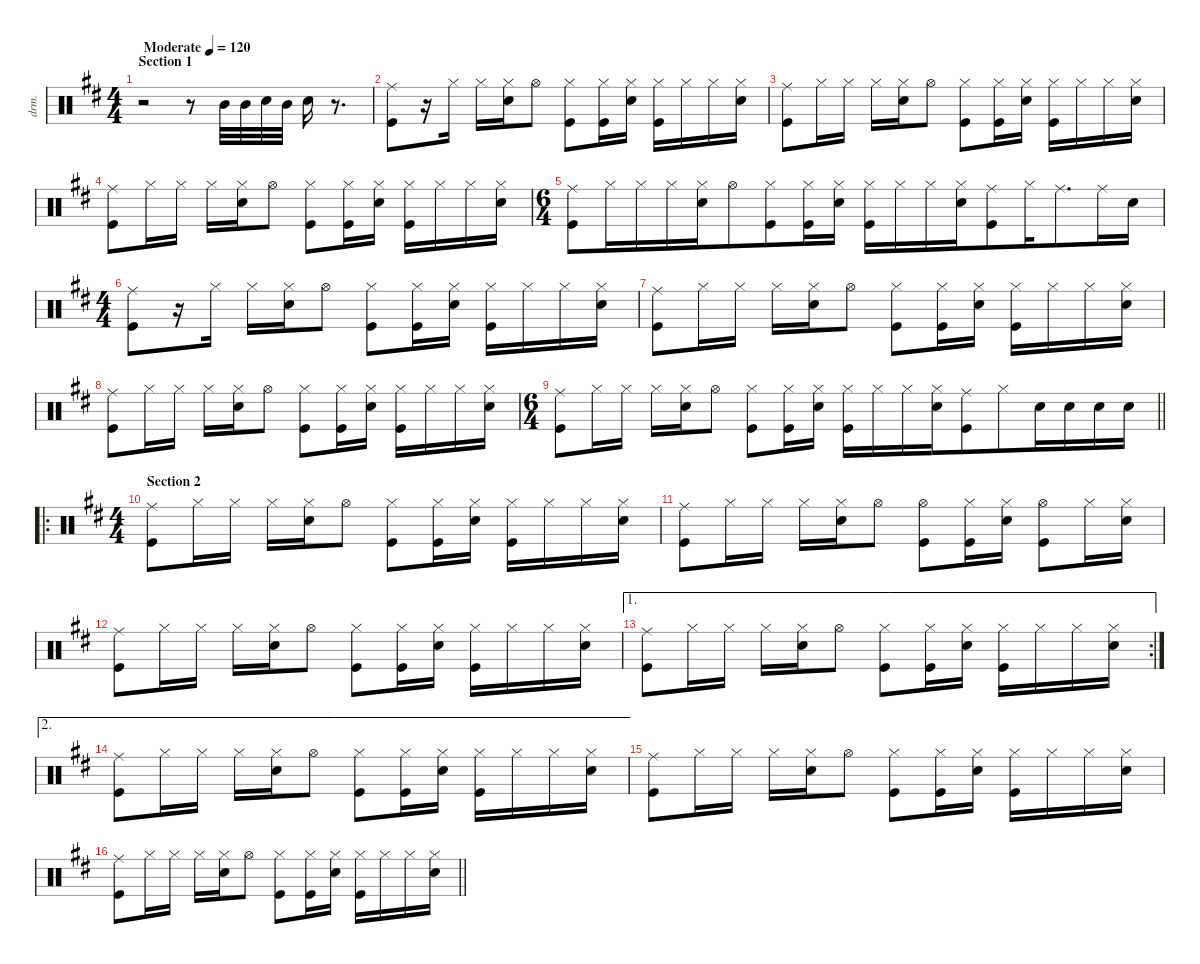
\defaultSystemsLayout 4
\hideDynamics
\bracketExtendMode nobrackets
\otherSystemsTrackNameOrientation horizontal
\track ("Drums" "drm.") {instrument percussion}
\staff {score}
\articulation defaults
\ts (4 4)
\beaming (8 2 2 2 2)
\section ("" "Section 1")
\tempo (120 "Moderate")
\clef neutral
\ks d
r.2{dy f} r.8 "Mid Tom (hit)"{acc forcenatural}.32 "Mid Tom (hit)"{acc forcenatural}.32 "Snare (hit) 2"{acc forcenatural}.32 "Mid Tom (hit)"{acc forcenatural}.32 "Snare (hit) 2"{acc forcenatural}.16 r.8{d} |
("Ride (middle)"{acc forcenatural} "Kick (hit)"{acc forcenatural}).8 r.16 "Hi-Hat (closed)"{acc forcenatural}.16 "Hi-Hat (closed)"{acc forcenatural}.16 ("Hi-Hat (closed)"{acc forcenatural} "Snare (hit) 2"{acc forcenatural}).16 "Hi-Hat (open)"{acc forcenatural}.8 ("Hi-Hat (closed)"{acc forcenatural} "Kick (hit)"{acc forcenatural}).8 ("Hi-Hat (closed)"{acc forcenatural} "Kick (hit)"{acc forcenatural}).16 ("Hi-Hat (closed)"{acc forcenatural} "Snare (hit) 2"{acc forcenatural}).16 ("Hi-Hat (closed)"{acc forcenatural} "Kick (hit)"{acc forcenatural}).16 "Hi-Hat (closed)"{acc forcenatural}.16 "Hi-Hat (closed)"{acc forcenatural}.16 ("Hi-Hat (closed)"{acc forcenatural} "Snare (hit) 2"{acc forcenatural}).16 |
("Ride (middle)"{acc forcenatural} "Kick (hit)"{acc forcenatural}).8 "Hi-Hat (closed)"{acc forcenatural}.16 "Hi-Hat (closed)"{acc forcenatural}.16 "Hi-Hat (closed)"{acc forcenatural}.16 ("Hi-Hat (closed)"{acc forcenatural} "Snare (hit) 2"{acc forcenatural}).16 "Hi-Hat (open)"{acc forcenatural}.8 ("Hi-Hat (closed)"{acc forcenatural} "Kick (hit)"{acc forcenatural}).8 ("Hi-Hat (closed)"{acc forcenatural} "Kick (hit)"{acc forcenatural}).16 ("Hi-Hat (closed)"{acc forcenatural} "Snare (hit) 2"{acc forcenatural}).16 ("Hi-Hat (closed)"{acc forcenatural} "Kick (hit)"{acc forcenatural}).16 "Hi-Hat (closed)"{acc forcenatural}.16 "Hi-Hat (closed)"{acc forcenatural}.16 ("Hi-Hat (closed)"{acc forcenatural} "Snare (hit) 2"{acc forcenatural}).16 |
("Ride (middle)"{acc forcenatural} "Kick (hit)"{acc forcenatural}).8 "Hi-Hat (closed)"{acc forcenatural}.16 "Hi-Hat (closed)"{acc forcenatural}.16 "Hi-Hat (closed)"{acc forcenatural}.16 ("Hi-Hat (closed)"{acc forcenatural} "Snare (hit) 2"{acc forcenatural}).16 "Hi-Hat (open)"{acc forcenatural}.8 ("Hi-Hat (closed)"{acc forcenatural} "Kick (hit)"{acc forcenatural}).8 ("Hi-Hat (closed)"{acc forcenatural} "Kick (hit)"{acc forcenatural}).16 ("Hi-Hat (closed)"{acc forcenatural} "Snare (hit) 2"{acc forcenatural}).16 ("Hi-Hat (closed)"{acc forcenatural} "Kick (hit)"{acc forcenatural}).16 "Hi-Hat (closed)"{acc forcenatural}.16 "Hi-Hat (closed)"{acc forcenatural}.16 ("Hi-Hat (closed)"{acc forcenatural} "Snare (hit) 2"{acc forcenatural}).16 |
\ts (6 4)
\beaming (8 6 6)
("Ride (middle)"{acc forcenatural} "Kick (hit)"{acc forcenatural}).8 "Hi-Hat (closed)"{acc forcenatural}.16 "Hi-Hat (closed)"{acc forcenatural}.16 "Hi-Hat (closed)"{acc forcenatural}.16 ("Hi-Hat (closed)"{acc forcenatural} "Snare (hit) 2"{acc forcenatural}).16 "Hi-Hat (open)"{acc forcenatural}.8 ("Hi-Hat (closed)"{acc forcenatural} "Kick (hit)"{acc forcenatural}).8 ("Hi-Hat (closed)"{acc forcenatural} "Kick (hit)"{acc forcenatural}).16 ("Hi-Hat (closed)"{acc forcenatural} "Snare (hit) 2"{acc forcenatural}).16 ("Hi-Hat (closed)"{acc forcenatural} "Kick (hit)"{acc forcenatural}).16 "Hi-Hat (closed)"{acc forcenatural}.16 "Hi-Hat (closed)"{acc forcenatural}.16 ("Hi-Hat (closed)"{acc forcenatural} "Snare (hit) 2"{acc forcenatural}).16 ("Ride (middle)"{acc forcenatural} "Kick (hit)"{acc forcenatural}).8 "Hi-Hat (closed)"{acc forcenatural}.16 "Ride (middle)"{acc forcenatural}.8{d} "Ride (middle)"{acc forcenatural}.16 "Snare (hit) 2"{acc forcenatural}.16 |
\ts (4 4)
\beaming (8 2 2 2 2)
("Ride (middle)"{acc forcenatural} "Kick (hit)"{acc forcenatural}).8 r.16 "Hi-Hat (closed)"{acc forcenatural}.16 "Hi-Hat (closed)"{acc forcenatural}.16 ("Hi-Hat (closed)"{acc forcenatural} "Snare (hit) 2"{acc forcenatural}).16 "Hi-Hat (open)"{acc forcenatural}.8 ("Hi-Hat (closed)"{acc forcenatural} "Kick (hit)"{acc forcenatural}).8 ("Hi-Hat (closed)"{acc forcenatural} "Kick (hit)"{acc forcenatural}).16 ("Hi-Hat (closed)"{acc forcenatural} "Snare (hit) 2"{acc forcenatural}).16 ("Hi-Hat (closed)"{acc forcenatural} "Kick (hit)"{acc forcenatural}).16 "Hi-Hat (closed)"{acc forcenatural}.16 "Hi-Hat (closed)"{acc forcenatural}.16 ("Hi-Hat (closed)"{acc forcenatural} "Snare (hit) 2"{acc forcenatural}).16 |
("Ride (middle)"{acc forcenatural} "Kick (hit)"{acc forcenatural}).8 "Hi-Hat (closed)"{acc forcenatural}.16 "Hi-Hat (closed)"{acc forcenatural}.16 "Hi-Hat (closed)"{acc forcenatural}.16 ("Hi-Hat (closed)"{acc forcenatural} "Snare (hit) 2"{acc forcenatural}).16 "Hi-Hat (open)"{acc forcenatural}.8 ("Hi-Hat (closed)"{acc forcenatural} "Kick (hit)"{acc forcenatural}).8 ("Hi-Hat (closed)"{acc forcenatural} "Kick (hit)"{acc forcenatural}).16 ("Hi-Hat (closed)"{acc forcenatural} "Snare (hit) 2"{acc forcenatural}).16 ("Hi-Hat (closed)"{acc forcenatural} "Kick (hit)"{acc forcenatural}).16 "Hi-Hat (closed)"{acc forcenatural}.16 "Hi-Hat (closed)"{acc forcenatural}.16 ("Hi-Hat (closed)"{acc forcenatural} "Snare (hit) 2"{acc forcenatural}).16 |
("Ride (middle)"{acc forcenatural} "Kick (hit)"{acc forcenatural}).8 "Hi-Hat (closed)"{acc forcenatural}.16 "Hi-Hat (closed)"{acc forcenatural}.16 "Hi-Hat (closed)"{acc forcenatural}.16 ("Hi-Hat (closed)"{acc forcenatural} "Snare (hit) 2"{acc forcenatural}).16 "Hi-Hat (open)"{acc forcenatural}.8 ("Hi-Hat (closed)"{acc forcenatural} "Kick (hit)"{acc forcenatural}).8 ("Hi-Hat (closed)"{acc forcenatural} "Kick (hit)"{acc forcenatural}).16 ("Hi-Hat (closed)"{acc forcenatural} "Snare (hit) 2"{acc forcenatural}).16 ("Hi-Hat (closed)"{acc forcenatural} "Kick (hit)"{acc forcenatural}).16 "Hi-Hat (closed)"{acc forcenatural}.16 "Hi-Hat (closed)"{acc forcenatural}.16 ("Hi-Hat (closed)"{acc forcenatural} "Snare (hit) 2"{acc forcenatural}).16 |
\ts (6 4)
\beaming (8 2 2 2 6)
\barLineRight lightlight
("Ride (middle)"{acc forcenatural} "Kick (hit)"{acc forcenatural}).8 "Hi-Hat (closed)"{acc forcenatural}.16 "Hi-Hat (closed)"{acc forcenatural}.16 "Hi-Hat (closed)"{acc forcenatural}.16 ("Hi-Hat (closed)"{acc forcenatural} "Snare (hit) 2"{acc forcenatural}).16 "Hi-Hat (open)"{acc forcenatural}.8 ("Hi-Hat (closed)"{acc forcenatural} "Kick (hit)"{acc forcenatural}).8 ("Hi-Hat (closed)"{acc forcenatural} "Kick (hit)"{acc forcenatural}).16 ("Hi-Hat (closed)"{acc forcenatural} "Snare (hit) 2"{acc forcenatural}).16 ("Hi-Hat (closed)"{acc forcenatural} "Kick (hit)"{acc forcenatural}).16 "Hi-Hat (closed)"{acc forcenatural}.16 "Hi-Hat (closed)"{acc forcenatural}.16 ("Hi-Hat (closed)"{acc forcenatural} "Snare (hit) 2"{acc forcenatural}).16 ("Ride (middle)"{acc forcenatural} "Kick (hit)"{acc forcenatural}).8 "Hi-Hat (closed)"{acc forcenatural}.8 "Snare (hit) 2"{acc forcenatural}.16 "Snare (hit) 2"{acc forcenatural}.16 "Snare (hit) 2"{acc forcenatural}.16 "Snare (hit) 2"{acc forcenatural}.16 |
\ro
\ts (4 4)
\beaming (8 2 2 2 2)
\section ("" "Section 2")
("Ride (middle)"{acc forcenatural} "Kick (hit)"{acc forcenatural}).8 "Hi-Hat (closed)"{acc forcenatural}.16 "Hi-Hat (closed)"{acc forcenatural}.16 "Hi-Hat (closed)"{acc forcenatural}.16 ("Hi-Hat (closed)"{acc forcenatural} "Snare (hit) 2"{acc forcenatural}).16 "Hi-Hat (open)"{acc forcenatural}.8 ("Hi-Hat (closed)"{acc forcenatural} "Kick (hit)"{acc forcenatural}).8 ("Hi-Hat (closed)"{acc forcenatural} "Kick (hit)"{acc forcenatural}).16 ("Hi-Hat (closed)"{acc forcenatural} "Snare (hit) 2"{acc forcenatural}).16 ("Hi-Hat (closed)"{acc forcenatural} "Kick (hit)"{acc forcenatural}).16 "Hi-Hat (closed)"{acc forcenatural}.16 "Hi-Hat (closed)"{acc forcenatural}.16 ("Hi-Hat (closed)"{acc forcenatural} "Snare (hit) 2"{acc forcenatural}).16 |
("Ride (middle)"{acc forcenatural} "Kick (hit)"{acc forcenatural}).8 "Hi-Hat (closed)"{acc forcenatural}.16 "Hi-Hat (closed)"{acc forcenatural}.16 "Hi-Hat (closed)"{acc forcenatural}.16 ("Hi-Hat (closed)"{acc forcenatural} "Snare (hit) 2"{acc forcenatural}).16 "Hi-Hat (open)"{acc forcenatural}.8 ("Hi-Hat (open)"{acc forcenatural} "Kick (hit)"{acc forcenatural}).8 ("Hi-Hat (closed)"{acc forcenatural} "Kick (hit)"{acc forcenatural}).16 ("Hi-Hat (closed)"{acc forcenatural} "Snare (hit) 2"{acc forcenatural}).16 ("Hi-Hat (open)"{acc forcenatural} "Kick (hit)"{acc forcenatural}).8 "Hi-Hat (closed)"{acc forcenatural}.16 ("Hi-Hat (closed)"{acc forcenatural} "Snare (hit) 2"{acc forcenatural}).16 |
("Ride (middle)"{acc forcenatural} "Kick (hit)"{acc forcenatural}).8 "Hi-Hat (closed)"{acc forcenatural}.16 "Hi-Hat (closed)"{acc forcenatural}.16 "Hi-Hat (closed)"{acc forcenatural}.16 ("Hi-Hat (closed)"{acc forcenatural} "Snare (hit) 2"{acc forcenatural}).16 "Hi-Hat (open)"{acc forcenatural}.8 ("Hi-Hat (closed)"{acc forcenatural} "Kick (hit)"{acc forcenatural}).8 ("Hi-Hat (closed)"{acc forcenatural} "Kick (hit)"{acc forcenatural}).16 ("Hi-Hat (closed)"{acc forcenatural} "Snare (hit) 2"{acc forcenatural}).16 ("Hi-Hat (closed)"{acc forcenatural} "Kick (hit)"{acc forcenatural}).16 "Hi-Hat (closed)"{acc forcenatural}.16 "Hi-Hat (closed)"{acc forcenatural}.16 ("Hi-Hat (closed)"{acc forcenatural} "Snare (hit) 2"{acc forcenatural}).16 |
\ae 1
\rc 2
("Ride (middle)"{acc forcenatural} "Kick (hit)"{acc forcenatural}).8 "Hi-Hat (closed)"{acc forcenatural}.16 "Hi-Hat (closed)"{acc forcenatural}.16 "Hi-Hat (closed)"{acc forcenatural}.16 ("Hi-Hat (closed)"{acc forcenatural} "Snare (hit) 2"{acc forcenatural}).16 "Hi-Hat (open)"{acc forcenatural}.8 ("Hi-Hat (closed)"{acc forcenatural} "Kick (hit)"{acc forcenatural}).8 ("Hi-Hat (closed)"{acc forcenatural} "Kick (hit)"{acc forcenatural}).16 ("Hi-Hat (closed)"{acc forcenatural} "Snare (hit) 2"{acc forcenatural}).16 ("Hi-Hat (closed)"{acc forcenatural} "Kick (hit)"{acc forcenatural}).16 "Hi-Hat (closed)"{acc forcenatural}.16 "Hi-Hat (closed)"{acc forcenatural}.16 ("Hi-Hat (closed)"{acc forcenatural} "Snare (hit) 2"{acc forcenatural}).16 |
\ae 2
("Ride (middle)"{acc forcenatural} "Kick (hit)"{acc forcenatural}).8 "Hi-Hat (closed)"{acc forcenatural}.16 "Hi-Hat (closed)"{acc forcenatural}.16 "Hi-Hat (closed)"{acc forcenatural}.16 ("Hi-Hat (closed)"{acc forcenatural} "Snare (hit) 2"{acc forcenatural}).16 "Hi-Hat (open)"{acc forcenatural}.8 ("Hi-Hat (closed)"{acc forcenatural} "Kick (hit)"{acc forcenatural}).8 ("Hi-Hat (closed)"{acc forcenatural} "Kick (hit)"{acc forcenatural}).16 ("Hi-Hat (closed)"{acc forcenatural} "Snare (hit) 2"{acc forcenatural}).16 ("Hi-Hat (closed)"{acc forcenatural} "Kick (hit)"{acc forcenatural}).16 "Hi-Hat (closed)"{acc forcenatural}.16 "Hi-Hat (closed)"{acc forcenatural}.16 ("Hi-Hat (closed)"{acc forcenatural} "Snare (hit) 2"{acc forcenatural}).16 |
("Ride (middle)"{acc forcenatural} "Kick (hit)"{acc forcenatural}).8 "Hi-Hat (closed)"{acc forcenatural}.16 "Hi-Hat (closed)"{acc forcenatural}.16 "Hi-Hat (closed)"{acc forcenatural}.16 ("Hi-Hat (closed)"{acc forcenatural} "Snare (hit) 2"{acc forcenatural}).16 "Hi-Hat (open)"{acc forcenatural}.8 ("Hi-Hat (closed)"{acc forcenatural} "Kick (hit)"{acc forcenatural}).8 ("Hi-Hat (closed)"{acc forcenatural} "Kick (hit)"{acc forcenatural}).16 ("Hi-Hat (closed)"{acc forcenatural} "Snare (hit) 2"{acc forcenatural}).16 ("Hi-Hat (closed)"{acc forcenatural} "Kick (hit)"{acc forcenatural}).16 "Hi-Hat (closed)"{acc forcenatural}.16 "Hi-Hat (closed)"{acc forcenatural}.16 ("Hi-Hat (closed)"{acc forcenatural} "Snare (hit) 2"{acc forcenatural}).16 |
\barLineRight lightlight
("Ride (middle)"{acc forcenatural} "Kick (hit)"{acc forcenatural}).8 "Hi-Hat (closed)"{acc forcenatural}.16 "Hi-Hat (closed)"{acc forcenatural}.16 "Hi-Hat (closed)"{acc forcenatural}.16 ("Hi-Hat (closed)"{acc forcenatural} "Snare (hit) 2"{acc forcenatural}).16 "Hi-Hat (open)"{acc forcenatural}.8 ("Hi-Hat (closed)"{acc forcenatural} "Kick (hit)"{acc forcenatural}).8 ("Hi-Hat (closed)"{acc forcenatural} "Kick (hit)"{acc forcenatural}).16 ("Hi-Hat (closed)"{acc forcenatural} "Snare (hit) 2"{acc forcenatural}).16 ("Hi-Hat (closed)"{acc forcenatural} "Kick (hit)"{acc forcenatural}).16 "Hi-Hat (closed)"{acc forcenatural}.16 "Hi-Hat (closed)"{acc forcenatural}.16 ("Hi-Hat (closed)"{acc forcenatural} "Snare (hit) 2"{acc forcenatural}).16
